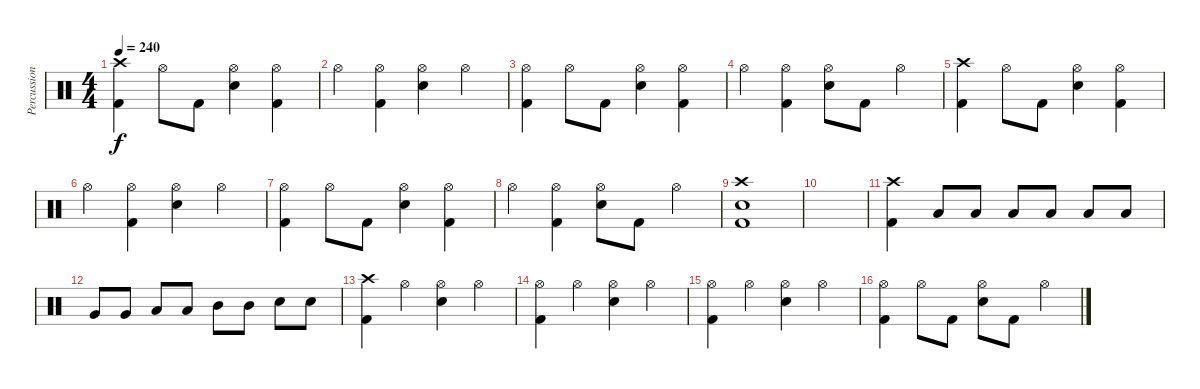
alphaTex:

\track ("Percussion" "Percussion") {instrument percussion}
\staff {score}
\articulation defaults
\ts (4 4)
\tempo 240
\clef neutral
\ks c
("Crash high (hit)" "Kick (hit) 2").4{dy f} "Hi-Hat (open)".8 "Kick (hit) 2".8 ("Hi-Hat (open)" "Snare (hit) 2").4 ("Hi-Hat (open)" "Kick (hit) 2").4 |
"Hi-Hat (open)".4 ("Hi-Hat (open)" "Kick (hit) 2").4 ("Hi-Hat (open)" "Snare (hit) 2").4 "Hi-Hat (open)".4 |
("Hi-Hat (open)" "Kick (hit) 2").4 "Hi-Hat (open)".8 "Kick (hit) 2".8 ("Hi-Hat (open)" "Snare (hit) 2").4 ("Hi-Hat (open)" "Kick (hit) 2").4 |
"Hi-Hat (open)".4 ("Hi-Hat (open)" "Kick (hit) 2").4 ("Hi-Hat (open)" "Snare (hit) 2").8 "Kick (hit) 2".8 "Hi-Hat (open)".4 |
("Crash high (hit)" "Kick (hit) 2").4 "Hi-Hat (open)".8 "Kick (hit) 2".8 ("Hi-Hat (open)" "Snare (hit) 2").4 ("Hi-Hat (open)" "Kick (hit) 2").4 |
"Hi-Hat (open)".4 ("Hi-Hat (open)" "Kick (hit) 2").4 ("Hi-Hat (open)" "Snare (hit) 2").4 "Hi-Hat (open)".4 |
("Hi-Hat (open)" "Kick (hit) 2").4 "Hi-Hat (open)".8 "Kick (hit) 2".8 ("Hi-Hat (open)" "Snare (hit) 2").4 ("Hi-Hat (open)" "Kick (hit) 2").4 |
"Hi-Hat (open)".4 ("Hi-Hat (open)" "Kick (hit) 2").4 ("Hi-Hat (open)" "Snare (hit) 2").8 "Kick (hit) 2".8 "Hi-Hat (open)".4 |
("Crash high (hit)" "Snare (hit) 2" "Kick (hit) 2").1 |
|
("Crash high (hit)" "Kick (hit) 2").4 "Low Floor Tom (hit)".8 "Low Floor Tom (hit)".8 "Low Floor Tom (hit)".8 "Low Floor Tom (hit)".8 "Low Floor Tom (hit)".8 "Low Floor Tom (hit)".8 |
"Very Low Tom (hit)".8 "Very Low Tom (hit)".8 "Low Tom (hit)".8 "Low Tom (hit)".8 "Mid Tom (hit)".8 "Mid Tom (hit)".8 "Snare (hit) 2".8 "Snare (hit) 2".8 |
("Crash high (hit)" "Kick (hit) 2").4 "Hi-Hat (open)".4 ("Hi-Hat (open)" "Snare (hit) 2").4 "Hi-Hat (open)".4 |
("Hi-Hat (open)" "Kick (hit) 2").4 "Hi-Hat (open)".4 ("Hi-Hat (open)" "Snare (hit) 2").4 "Hi-Hat (open)".4 |
("Hi-Hat (open)" "Kick (hit) 2").4 "Hi-Hat (open)".4 ("Hi-Hat (open)" "Snare (hit) 2").4 "Hi-Hat (open)".4 |
("Hi-Hat (open)" "Kick (hit) 2").4 "Hi-Hat (open)".8 "Kick (hit) 2".8 ("Hi-Hat (open)" "Snare (hit) 2").8 "Kick (hit) 2".8 "Hi-Hat (open)".4
